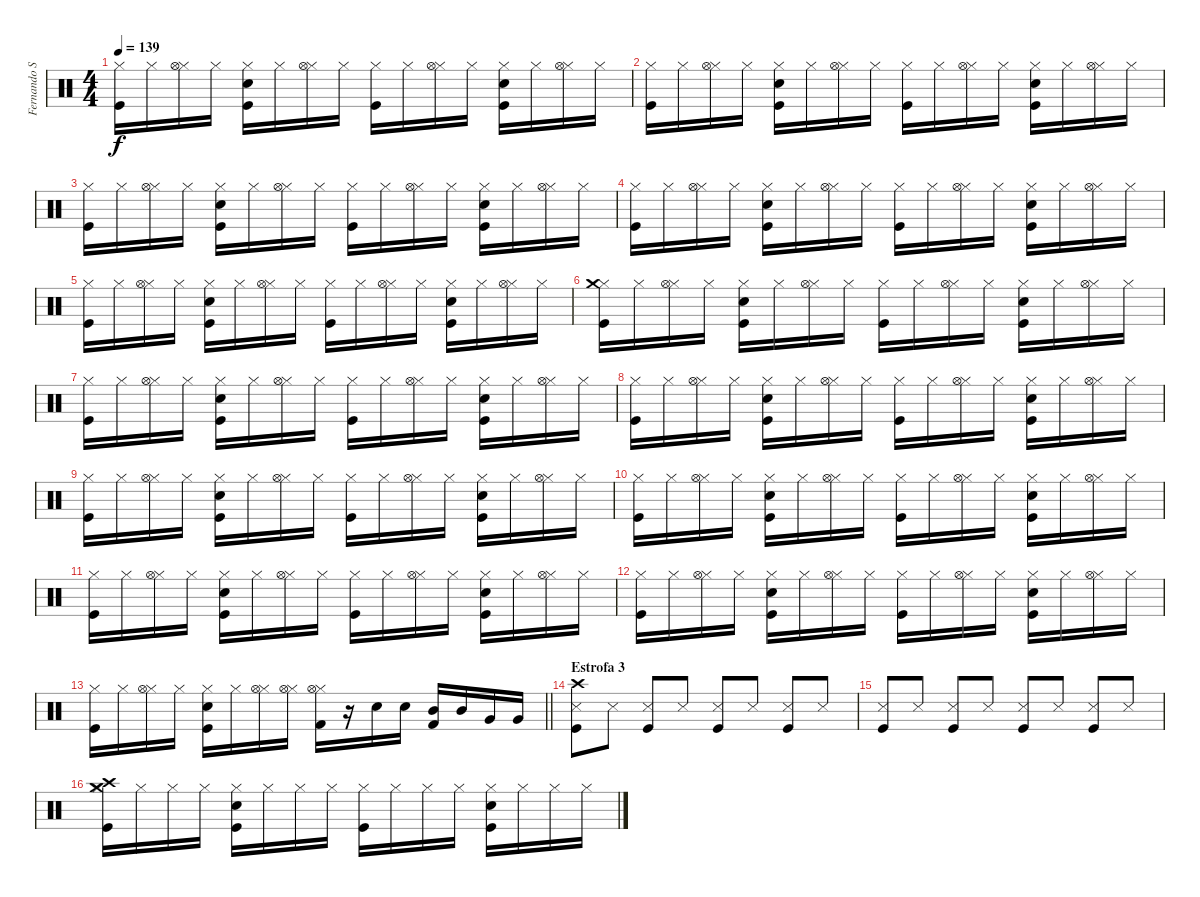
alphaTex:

\track ("Fernando Samalea (Bateria)" "Fernando S") {instrument percussion}
\staff {score}
\articulation defaults
\ts (4 4)
\tempo 139
\clef neutral
\ks c
("Kick (hit)" "Hi-Hat (closed)").16{dy f} "Hi-Hat (closed)".16 ("Hi-Hat (closed)" "Hi-Hat (open)").16 "Hi-Hat (closed)".16 ("Kick (hit)" "Snare (hit) 2" "Hi-Hat (closed)").16 "Hi-Hat (closed)".16 ("Hi-Hat (closed)" "Hi-Hat (open)").16 "Hi-Hat (closed)".16 ("Kick (hit)" "Hi-Hat (closed)").16 "Hi-Hat (closed)".16 ("Hi-Hat (closed)" "Hi-Hat (open)").16 "Hi-Hat (closed)".16 ("Kick (hit)" "Snare (hit) 2" "Hi-Hat (closed)").16 "Hi-Hat (closed)".16 ("Hi-Hat (closed)" "Hi-Hat (open)").16 "Hi-Hat (closed)".16 |
("Kick (hit)" "Hi-Hat (closed)").16 "Hi-Hat (closed)".16 ("Hi-Hat (closed)" "Hi-Hat (open)").16 "Hi-Hat (closed)".16 ("Kick (hit)" "Snare (hit) 2" "Hi-Hat (closed)").16 "Hi-Hat (closed)".16 ("Hi-Hat (closed)" "Hi-Hat (open)").16 "Hi-Hat (closed)".16 ("Kick (hit)" "Hi-Hat (closed)").16 "Hi-Hat (closed)".16 ("Hi-Hat (closed)" "Hi-Hat (open)").16 "Hi-Hat (closed)".16 ("Kick (hit)" "Snare (hit) 2" "Hi-Hat (closed)").16 "Hi-Hat (closed)".16 ("Hi-Hat (closed)" "Hi-Hat (open)").16 "Hi-Hat (closed)".16 |
("Kick (hit)" "Hi-Hat (closed)").16 "Hi-Hat (closed)".16 ("Hi-Hat (closed)" "Hi-Hat (open)").16 "Hi-Hat (closed)".16 ("Kick (hit)" "Snare (hit) 2" "Hi-Hat (closed)").16 "Hi-Hat (closed)".16 ("Hi-Hat (closed)" "Hi-Hat (open)").16 "Hi-Hat (closed)".16 ("Kick (hit)" "Hi-Hat (closed)").16 "Hi-Hat (closed)".16 ("Hi-Hat (closed)" "Hi-Hat (open)").16 "Hi-Hat (closed)".16 ("Kick (hit)" "Snare (hit) 2" "Hi-Hat (closed)").16 "Hi-Hat (closed)".16 ("Hi-Hat (closed)" "Hi-Hat (open)").16 "Hi-Hat (closed)".16 |
("Kick (hit)" "Hi-Hat (closed)").16 "Hi-Hat (closed)".16 ("Hi-Hat (closed)" "Hi-Hat (open)").16 "Hi-Hat (closed)".16 ("Kick (hit)" "Snare (hit) 2" "Hi-Hat (closed)").16 "Hi-Hat (closed)".16 ("Hi-Hat (closed)" "Hi-Hat (open)").16 "Hi-Hat (closed)".16 ("Kick (hit)" "Hi-Hat (closed)").16 "Hi-Hat (closed)".16 ("Hi-Hat (closed)" "Hi-Hat (open)").16 "Hi-Hat (closed)".16 ("Kick (hit)" "Snare (hit) 2" "Hi-Hat (closed)").16 "Hi-Hat (closed)".16 ("Hi-Hat (closed)" "Hi-Hat (open)").16 "Hi-Hat (closed)".16 |
("Kick (hit)" "Hi-Hat (closed)").16 "Hi-Hat (closed)".16 ("Hi-Hat (closed)" "Hi-Hat (open)").16 "Hi-Hat (closed)".16 ("Kick (hit)" "Snare (hit) 2" "Hi-Hat (closed)").16 "Hi-Hat (closed)".16 ("Hi-Hat (closed)" "Hi-Hat (open)").16 "Hi-Hat (closed)".16 ("Kick (hit)" "Hi-Hat (closed)").16 "Hi-Hat (closed)".16 ("Hi-Hat (closed)" "Hi-Hat (open)").16 "Hi-Hat (closed)".16 ("Kick (hit)" "Snare (hit) 2" "Hi-Hat (closed)").16 "Hi-Hat (closed)".16 ("Hi-Hat (closed)" "Hi-Hat (open)").16 "Hi-Hat (closed)".16 |
("Kick (hit)" "Hi-Hat (closed)" "Crash medium (hit)").16 "Hi-Hat (closed)".16 ("Hi-Hat (closed)" "Hi-Hat (open)").16 "Hi-Hat (closed)".16 ("Kick (hit)" "Snare (hit) 2" "Hi-Hat (closed)").16 "Hi-Hat (closed)".16 ("Hi-Hat (closed)" "Hi-Hat (open)").16 "Hi-Hat (closed)".16 ("Kick (hit)" "Hi-Hat (closed)").16 "Hi-Hat (closed)".16 ("Hi-Hat (closed)" "Hi-Hat (open)").16 "Hi-Hat (closed)".16 ("Kick (hit)" "Snare (hit) 2" "Hi-Hat (closed)").16 "Hi-Hat (closed)".16 ("Hi-Hat (closed)" "Hi-Hat (open)").16 "Hi-Hat (closed)".16 |
("Kick (hit)" "Hi-Hat (closed)").16 "Hi-Hat (closed)".16 ("Hi-Hat (closed)" "Hi-Hat (open)").16 "Hi-Hat (closed)".16 ("Kick (hit)" "Snare (hit) 2" "Hi-Hat (closed)").16 "Hi-Hat (closed)".16 ("Hi-Hat (closed)" "Hi-Hat (open)").16 "Hi-Hat (closed)".16 ("Kick (hit)" "Hi-Hat (closed)").16 "Hi-Hat (closed)".16 ("Hi-Hat (closed)" "Hi-Hat (open)").16 "Hi-Hat (closed)".16 ("Kick (hit)" "Snare (hit) 2" "Hi-Hat (closed)").16 "Hi-Hat (closed)".16 ("Hi-Hat (closed)" "Hi-Hat (open)").16 "Hi-Hat (closed)".16 |
("Kick (hit)" "Hi-Hat (closed)").16 "Hi-Hat (closed)".16 ("Hi-Hat (closed)" "Hi-Hat (open)").16 "Hi-Hat (closed)".16 ("Kick (hit)" "Snare (hit) 2" "Hi-Hat (closed)").16 "Hi-Hat (closed)".16 ("Hi-Hat (closed)" "Hi-Hat (open)").16 "Hi-Hat (closed)".16 ("Kick (hit)" "Hi-Hat (closed)").16 "Hi-Hat (closed)".16 ("Hi-Hat (closed)" "Hi-Hat (open)").16 "Hi-Hat (closed)".16 ("Kick (hit)" "Snare (hit) 2" "Hi-Hat (closed)").16 "Hi-Hat (closed)".16 ("Hi-Hat (closed)" "Hi-Hat (open)").16 "Hi-Hat (closed)".16 |
("Kick (hit)" "Hi-Hat (closed)").16 "Hi-Hat (closed)".16 ("Hi-Hat (closed)" "Hi-Hat (open)").16 "Hi-Hat (closed)".16 ("Kick (hit)" "Snare (hit) 2" "Hi-Hat (closed)").16 "Hi-Hat (closed)".16 ("Hi-Hat (closed)" "Hi-Hat (open)").16 "Hi-Hat (closed)".16 ("Kick (hit)" "Hi-Hat (closed)").16 "Hi-Hat (closed)".16 ("Hi-Hat (closed)" "Hi-Hat (open)").16 "Hi-Hat (closed)".16 ("Kick (hit)" "Snare (hit) 2" "Hi-Hat (closed)").16 "Hi-Hat (closed)".16 ("Hi-Hat (closed)" "Hi-Hat (open)").16 "Hi-Hat (closed)".16 |
("Kick (hit)" "Hi-Hat (closed)").16 "Hi-Hat (closed)".16 ("Hi-Hat (closed)" "Hi-Hat (open)").16 "Hi-Hat (closed)".16 ("Kick (hit)" "Snare (hit) 2" "Hi-Hat (closed)").16 "Hi-Hat (closed)".16 ("Hi-Hat (closed)" "Hi-Hat (open)").16 "Hi-Hat (closed)".16 ("Kick (hit)" "Hi-Hat (closed)").16 "Hi-Hat (closed)".16 ("Hi-Hat (closed)" "Hi-Hat (open)").16 "Hi-Hat (closed)".16 ("Kick (hit)" "Snare (hit) 2" "Hi-Hat (closed)").16 "Hi-Hat (closed)".16 ("Hi-Hat (closed)" "Hi-Hat (open)").16 "Hi-Hat (closed)".16 |
("Kick (hit)" "Hi-Hat (closed)").16 "Hi-Hat (closed)".16 ("Hi-Hat (closed)" "Hi-Hat (open)").16 "Hi-Hat (closed)".16 ("Kick (hit)" "Snare (hit) 2" "Hi-Hat (closed)").16 "Hi-Hat (closed)".16 ("Hi-Hat (closed)" "Hi-Hat (open)").16 "Hi-Hat (closed)".16 ("Kick (hit)" "Hi-Hat (closed)").16 "Hi-Hat (closed)".16 ("Hi-Hat (closed)" "Hi-Hat (open)").16 "Hi-Hat (closed)".16 ("Kick (hit)" "Snare (hit) 2" "Hi-Hat (closed)").16 "Hi-Hat (closed)".16 ("Hi-Hat (closed)" "Hi-Hat (open)").16 "Hi-Hat (closed)".16 |
("Kick (hit)" "Hi-Hat (closed)").16 "Hi-Hat (closed)".16 ("Hi-Hat (closed)" "Hi-Hat (open)").16 "Hi-Hat (closed)".16 ("Kick (hit)" "Snare (hit) 2" "Hi-Hat (closed)").16 "Hi-Hat (closed)".16 ("Hi-Hat (closed)" "Hi-Hat (open)").16 "Hi-Hat (closed)".16 ("Kick (hit)" "Hi-Hat (closed)").16 "Hi-Hat (closed)".16 ("Hi-Hat (closed)" "Hi-Hat (open)").16 "Hi-Hat (closed)".16 ("Kick (hit)" "Snare (hit) 2" "Hi-Hat (closed)").16 "Hi-Hat (closed)".16 ("Hi-Hat (closed)" "Hi-Hat (open)").16 "Hi-Hat (closed)".16 |
\barLineRight lightlight
("Kick (hit)" "Hi-Hat (closed)").16 "Hi-Hat (closed)".16 ("Hi-Hat (closed)" "Hi-Hat (open)").16 "Hi-Hat (closed)".16 ("Kick (hit)" "Snare (hit) 2" "Hi-Hat (closed)").16 "Hi-Hat (closed)".16 ("Hi-Hat (closed)" "Hi-Hat (open)").16 ("Hi-Hat (closed)" "Hi-Hat (open)").16 ("Kick (hit) 2" "Hi-Hat (closed)" "Hi-Hat (open)").16 r.16 "Snare (hit) 2".16 "Snare (hit) 2".16 ("Kick (hit) 2" "Mid Tom (hit)").16 "Mid Tom (hit)".16 "Very Low Tom (hit)".16 "Very Low Tom (hit)".16 |
\section ("" "Estrofa 3")
("Kick (hit)" "Snare (side stick) 3" "Crash high (hit)").8 "Snare (side stick) 3".8 ("Kick (hit)" "Snare (side stick) 3").8 "Snare (side stick) 3".8 ("Kick (hit)" "Snare (side stick) 3").8 "Snare (side stick) 3".8 ("Kick (hit)" "Snare (side stick) 3").8 "Snare (side stick) 3".8 |
("Kick (hit)" "Snare (side stick) 3").8 "Snare (side stick) 3".8 ("Kick (hit)" "Snare (side stick) 3").8 "Snare (side stick) 3".8 ("Kick (hit)" "Snare (side stick) 3").8 "Snare (side stick) 3".8 ("Kick (hit)" "Snare (side stick) 3").8 "Snare (side stick) 3".8 |
("Kick (hit)" "Hi-Hat (closed)" "Crash medium (hit)" "Crash high (hit)").16 "Hi-Hat (closed)".16 "Hi-Hat (closed)".16 "Hi-Hat (closed)".16 ("Kick (hit)" "Snare (hit) 2" "Hi-Hat (closed)").16 "Hi-Hat (closed)".16 "Hi-Hat (closed)".16 "Hi-Hat (closed)".16 ("Kick (hit)" "Hi-Hat (closed)").16 "Hi-Hat (closed)".16 "Hi-Hat (closed)".16 "Hi-Hat (closed)".16 ("Kick (hit)" "Snare (hit) 2" "Hi-Hat (closed)").16 "Hi-Hat (closed)".16 "Hi-Hat (closed)".16 "Hi-Hat (closed)".16
